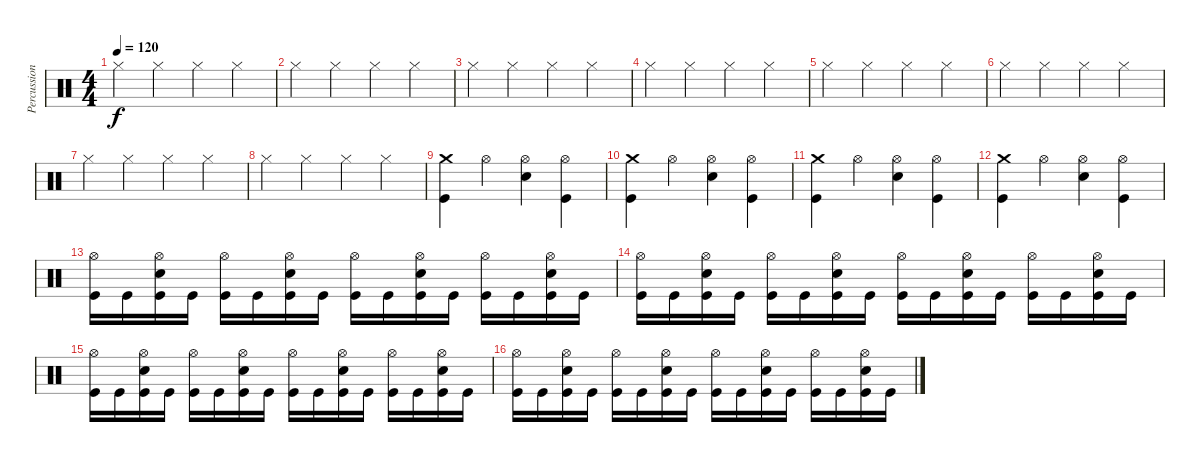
\track ("Percussion" "Percussion") {instrument percussion}
\staff {score}
\articulation defaults
\ts (4 4)
\tempo 120
\clef neutral
\ks c "Hi-Hat (closed)".4{dy f} "Hi-Hat (closed)".4 "Hi-Hat (closed)".4 "Hi-Hat (closed)".4
|
"Hi-Hat (closed)".4 "Hi-Hat (closed)".4 "Hi-Hat (closed)".4 "Hi-Hat (closed)".4 |
"Hi-Hat (closed)".4 "Hi-Hat (closed)".4 "Hi-Hat (closed)".4 "Hi-Hat (closed)".4 |
"Hi-Hat (closed)".4 "Hi-Hat (closed)".4 "Hi-Hat (closed)".4 "Hi-Hat (closed)".4 |
"Hi-Hat (closed)".4 "Hi-Hat (closed)".4 "Hi-Hat (closed)".4 "Hi-Hat (closed)".4 |
"Hi-Hat (closed)".4 "Hi-Hat (closed)".4 "Hi-Hat (closed)".4 "Hi-Hat (closed)".4 |
"Hi-Hat (closed)".4 "Hi-Hat (closed)".4 "Hi-Hat (closed)".4 "Hi-Hat (closed)".4 |
"Hi-Hat (closed)".4 "Hi-Hat (closed)".4 "Hi-Hat (closed)".4 "Hi-Hat (closed)".4 |
("Crash medium (hit)" "Kick (hit)").4 "Hi-Hat (open)".4 ("Hi-Hat (open)" "Snare (hit) 2").4 ("Hi-Hat (open)" "Kick (hit)").4 |
("Crash medium (hit)" "Kick (hit)").4 "Hi-Hat (open)".4 ("Hi-Hat (open)" "Snare (hit) 2").4 ("Hi-Hat (open)" "Kick (hit)").4 |
("Crash medium (hit)" "Kick (hit)").4 "Hi-Hat (open)".4 ("Hi-Hat (open)" "Snare (hit) 2").4 ("Hi-Hat (open)" "Kick (hit)").4 |
("Crash medium (hit)" "Kick (hit)").4 "Hi-Hat (open)".4 ("Hi-Hat (open)" "Snare (hit) 2").4 ("Hi-Hat (open)" "Kick (hit)").4 |
("Hi-Hat (open)" "Kick (hit)").16 "Kick (hit)".16 ("Hi-Hat (open)" "Snare (hit) 2" "Kick (hit)").16 "Kick (hit)".16 ("Hi-Hat (open)" "Kick (hit)").16 "Kick (hit)".16 ("Hi-Hat (open)" "Snare (hit) 2" "Kick (hit)").16 "Kick (hit)".16 ("Hi-Hat (open)" "Kick (hit)").16 "Kick (hit)".16 ("Hi-Hat (open)" "Snare (hit) 2" "Kick (hit)").16 "Kick (hit)".16 ("Hi-Hat (open)" "Kick (hit)").16 "Kick (hit)".16 ("Hi-Hat (open)" "Snare (hit) 2" "Kick (hit)").16 "Kick (hit)".16 |
("Hi-Hat (open)" "Kick (hit)").16 "Kick (hit)".16 ("Hi-Hat (open)" "Snare (hit) 2" "Kick (hit)").16 "Kick (hit)".16 ("Hi-Hat (open)" "Kick (hit)").16 "Kick (hit)".16 ("Hi-Hat (open)" "Snare (hit) 2" "Kick (hit)").16 "Kick (hit)".16 ("Hi-Hat (open)" "Kick (hit)").16 "Kick (hit)".16 ("Hi-Hat (open)" "Snare (hit) 2" "Kick (hit)").16 "Kick (hit)".16 ("Hi-Hat (open)" "Kick (hit)").16 "Kick (hit)".16 ("Hi-Hat (open)" "Snare (hit) 2" "Kick (hit)").16 "Kick (hit)".16 |
("Hi-Hat (open)" "Kick (hit)").16 "Kick (hit)".16 ("Hi-Hat (open)" "Snare (hit) 2" "Kick (hit)").16 "Kick (hit)".16 ("Hi-Hat (open)" "Kick (hit)").16 "Kick (hit)".16 ("Hi-Hat (open)" "Snare (hit) 2" "Kick (hit)").16 "Kick (hit)".16 ("Hi-Hat (open)" "Kick (hit)").16 "Kick (hit)".16 ("Hi-Hat (open)" "Snare (hit) 2" "Kick (hit)").16 "Kick (hit)".16 ("Hi-Hat (open)" "Kick (hit)").16 "Kick (hit)".16 ("Hi-Hat (open)" "Snare (hit) 2" "Kick (hit)").16 "Kick (hit)".16 |
("Hi-Hat (open)" "Kick (hit)").16 "Kick (hit)".16 ("Hi-Hat (open)" "Snare (hit) 2" "Kick (hit)").16 "Kick (hit)".16 ("Hi-Hat (open)" "Kick (hit)").16 "Kick (hit)".16 ("Hi-Hat (open)" "Snare (hit) 2" "Kick (hit)").16 "Kick (hit)".16 ("Hi-Hat (open)" "Kick (hit)").16 "Kick (hit)".16 ("Hi-Hat (open)" "Snare (hit) 2" "Kick (hit)").16 "Kick (hit)".16 ("Hi-Hat (open)" "Kick (hit)").16 "Kick (hit)".16 ("Hi-Hat (open)" "Snare (hit) 2" "Kick (hit)").16 "Kick (hit)".16
